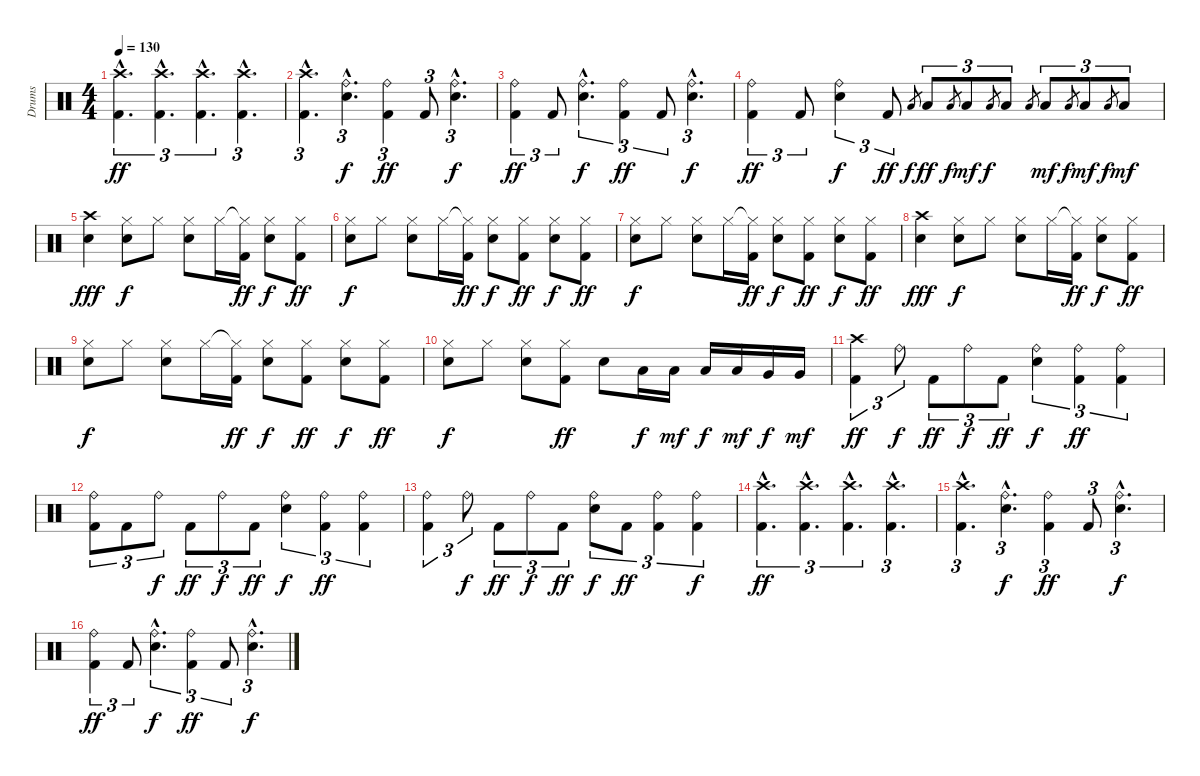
\track ("Drums" "Drums") {instrument percussion}
\staff {score}
\articulation defaults
\ts (4 4)
\tempo 130
\clef neutral
\ks c
("Crash high (hit)"{hac} "Kick (hit) 2"{hac}).4{d tu (3 2) dy ff} ("Crash high (hit)"{hac} "Kick (hit) 2"{hac}).4{d tu (3 2)} ("Crash high (hit)"{hac} "Kick (hit) 2"{hac}).4{d tu (3 2)} ("Crash high (hit)"{hac} "Kick (hit) 2"{hac}).4{d tu (3 2)} |
("Crash high (hit)"{hac} "Kick (hit) 2"{hac}).4{d tu (3 2)} ("Ride (bell)"{hac} "Snare (hit) 2"{hac}).4{d tu (3 2) dy f} ("Ride (bell)" "Kick (hit) 2").4{tu (3 2) dy ff} "Kick (hit) 2".8{tu (3 2)} ("Ride (bell)"{hac} "Snare (hit) 2"{hac}).4{d tu (3 2) dy f} |
("Ride (bell)" "Kick (hit) 2").4{tu (3 2) dy ff} "Kick (hit) 2".8{tu (3 2)} ("Ride (bell)"{hac} "Snare (hit) 2"{hac}).4{d tu (3 2) dy f} ("Ride (bell)" "Kick (hit) 2").4{tu (3 2) dy ff} "Kick (hit) 2".8{tu (3 2)} ("Ride (bell)"{hac} "Snare (hit) 2"{hac}).4{d tu (3 2) dy f} |
("Ride (bell)" "Kick (hit) 2").4{tu (3 2) dy ff} "Kick (hit) 2".8{tu (3 2)} ("Ride (bell)" "Snare (hit) 2").4{tu (3 2) dy f} "Kick (hit) 2".8{tu (3 2) dy ff} "Low Tom (hit)".8{gr dy f} "Low Tom (hit)".8{tu (3 2) dy ff} "Low Tom (hit)".8{gr dy f} "Low Tom (hit)".8{tu (3 2) dy mf} "Low Tom (hit)".8{gr dy f} "Low Tom (hit)".8{tu (3 2)} "Low Tom (hit)".8{gr} "Low Tom (hit)".8{tu (3 2) dy mf} "Low Tom (hit)".8{gr dy f} "Low Tom (hit)".8{tu (3 2) dy mf} "Low Tom (hit)".8{gr dy f} "Low Tom (hit)".8{tu (3 2) dy mf} |
("Crash high (hit)" "Snare (hit) 2").4{dy fff} ("Hi-Hat (closed)" "Snare (hit) 2").8{dy f} "Hi-Hat (closed)".8 ("Hi-Hat (closed)" "Snare (hit) 2").8 "Hi-Hat (closed)".16 ("Hi-Hat (closed)"{t} "Kick (hit) 2").16{dy ff} ("Hi-Hat (closed)" "Snare (hit) 2").8{dy f} ("Hi-Hat (closed)" "Kick (hit) 2").8{dy ff} |
("Hi-Hat (closed)" "Snare (hit) 2").8{dy f} "Hi-Hat (closed)".8 ("Hi-Hat (closed)" "Snare (hit) 2").8 "Hi-Hat (closed)".16 ("Hi-Hat (closed)"{t} "Kick (hit) 2").16{dy ff} ("Hi-Hat (closed)" "Snare (hit) 2").8{dy f} ("Hi-Hat (closed)" "Kick (hit) 2").8{dy ff} ("Hi-Hat (closed)" "Snare (hit) 2").8{dy f} ("Hi-Hat (closed)" "Kick (hit) 2").8{dy ff} |
("Hi-Hat (closed)" "Snare (hit) 2").8{dy f} "Hi-Hat (closed)".8 ("Hi-Hat (closed)" "Snare (hit) 2").8 "Hi-Hat (closed)".16 ("Hi-Hat (closed)"{t} "Kick (hit) 2").16{dy ff} ("Hi-Hat (closed)" "Snare (hit) 2").8{dy f} ("Hi-Hat (closed)" "Kick (hit) 2").8{dy ff} ("Hi-Hat (closed)" "Snare (hit) 2").8{dy f} ("Hi-Hat (closed)" "Kick (hit) 2").8{dy ff} |
("Crash high (hit)" "Snare (hit) 2").4{dy fff} ("Hi-Hat (closed)" "Snare (hit) 2").8{dy f} "Hi-Hat (closed)".8 ("Hi-Hat (closed)" "Snare (hit) 2").8 "Hi-Hat (closed)".16 ("Hi-Hat (closed)"{t} "Kick (hit) 2").16{dy ff} ("Hi-Hat (closed)" "Snare (hit) 2").8{dy f} ("Hi-Hat (closed)" "Kick (hit) 2").8{dy ff} |
("Hi-Hat (closed)" "Snare (hit) 2").8{dy f} "Hi-Hat (closed)".8 ("Hi-Hat (closed)" "Snare (hit) 2").8 "Hi-Hat (closed)".16 ("Hi-Hat (closed)"{t} "Kick (hit) 2").16{dy ff} ("Hi-Hat (closed)" "Snare (hit) 2").8{dy f} ("Hi-Hat (closed)" "Kick (hit) 2").8{dy ff} ("Hi-Hat (closed)" "Snare (hit) 2").8{dy f} ("Hi-Hat (closed)" "Kick (hit) 2").8{dy ff} |
("Hi-Hat (closed)" "Snare (hit) 2").8{dy f} "Hi-Hat (closed)".8 ("Hi-Hat (closed)" "Snare (hit) 2").8 ("Hi-Hat (closed)" "Kick (hit) 2").8{dy ff} "Snare (hit) 2".8 "Low Tom (hit)".16{dy f} "Low Tom (hit)".16{dy mf} "Low Tom (hit)".16{dy f} "Low Tom (hit)".16{dy mf} "Very Low Tom (hit)".16{dy f} "Very Low Tom (hit)".16{dy mf} |
("Crash high (hit)" "Kick (hit) 2").4{tu (3 2) dy ff} "Ride (bell)".8{tu (3 2) dy f} "Kick (hit) 2".8{tu (3 2) dy ff} "Ride (bell)".8{tu (3 2) dy f} "Kick (hit) 2".8{tu (3 2) dy ff} ("Ride (bell)" "Snare (hit) 2").4{tu (3 2) dy f} ("Ride (bell)" "Kick (hit) 2").4{tu (3 2) dy ff} ("Ride (bell)" "Kick (hit) 2").4{tu (3 2)} |
("Ride (bell)" "Kick (hit) 2").8{tu (3 2)} "Kick (hit) 2".8{tu (3 2)} "Ride (bell)".8{tu (3 2) dy f} "Kick (hit) 2".8{tu (3 2) dy ff} "Ride (bell)".8{tu (3 2) dy f} "Kick (hit) 2".8{tu (3 2) dy ff} ("Ride (bell)" "Snare (hit) 2").4{tu (3 2) dy f} ("Ride (bell)" "Kick (hit) 2").4{tu (3 2) dy ff} ("Ride (bell)" "Kick (hit) 2").4{tu (3 2)} |
("Ride (bell)" "Kick (hit) 2").4{tu (3 2)} "Ride (bell)".8{tu (3 2) dy f} "Kick (hit) 2".8{tu (3 2) dy ff} "Ride (bell)".8{tu (3 2) dy f} "Kick (hit) 2".8{tu (3 2) dy ff} ("Ride (bell)" "Snare (hit) 2").8{tu (3 2) dy f} "Kick (hit) 2".8{tu (3 2) dy ff} ("Ride (bell)" "Kick (hit) 2").4{tu (3 2)} ("Ride (bell)" "Kick (hit) 2").4{tu (3 2) dy f} |
("Crash high (hit)"{hac} "Kick (hit) 2"{hac}).4{d tu (3 2) dy ff} ("Crash high (hit)"{hac} "Kick (hit) 2"{hac}).4{d tu (3 2)} ("Crash high (hit)"{hac} "Kick (hit) 2"{hac}).4{d tu (3 2)} ("Crash high (hit)"{hac} "Kick (hit) 2"{hac}).4{d tu (3 2)} |
("Crash high (hit)"{hac} "Kick (hit) 2"{hac}).4{d tu (3 2)} ("Ride (bell)"{hac} "Snare (hit) 2"{hac}).4{d tu (3 2) dy f} ("Ride (bell)" "Kick (hit) 2").4{tu (3 2) dy ff} "Kick (hit) 2".8{tu (3 2)} ("Ride (bell)"{hac} "Snare (hit) 2"{hac}).4{d tu (3 2) dy f} |
("Ride (bell)" "Kick (hit) 2").4{tu (3 2) dy ff} "Kick (hit) 2".8{tu (3 2)} ("Ride (bell)"{hac} "Snare (hit) 2"{hac}).4{d tu (3 2) dy f} ("Ride (bell)" "Kick (hit) 2").4{tu (3 2) dy ff} "Kick (hit) 2".8{tu (3 2)} ("Ride (bell)"{hac} "Snare (hit) 2"{hac}).4{d tu (3 2) dy f}
